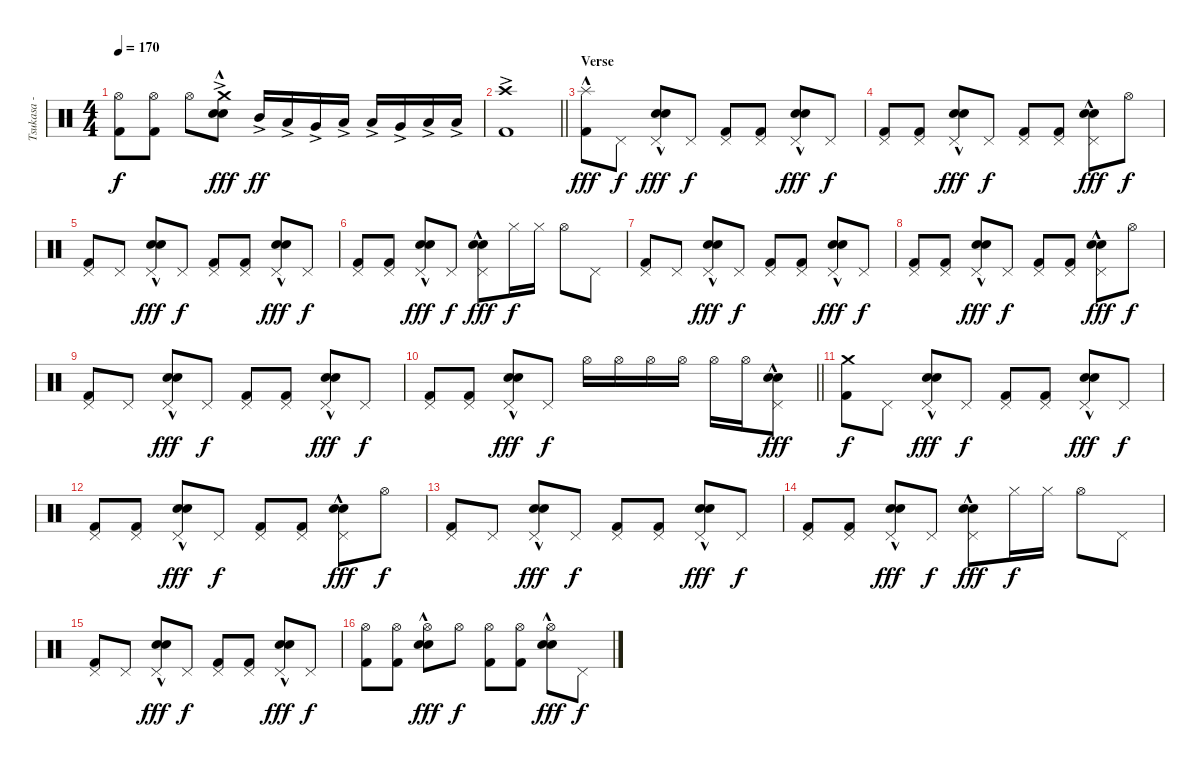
\track ("Tsukasa - Drums" "Tsukasa - ") {instrument percussion}
\staff {score}
\articulation defaults
\ts (4 4)
\tempo 170
\clef neutral
\ks c
("Hi-Hat (open)" "Kick (hit) 2").8{dy f} ("Hi-Hat (open)" "Kick (hit) 2").8 "Hi-Hat (open)".8 ("Crash medium (hit)"{ac} "Electric Snare (hit)"{hac} "Snare (hit) 2").8{dy fff} "Mid Tom (hit)"{ac}.16{dy ff} "Low Tom (hit)"{ac}.16 "Very Low Tom (hit)"{ac}.16 "Low Floor Tom (hit)"{ac}.16 "Low Tom (hit)"{ac}.16 "Very Low Tom (hit)"{ac}.16 "Low Floor Tom (hit)"{ac}.16 "Low Floor Tom (hit)"{ac}.16 |
\barLineRight lightlight
("Crash high (hit)"{ac} "Kick (hit) 2").1 |
\section ("" "Verse")
("Splash (hit)"{hac} "Kick (hit) 2").8{dy fff} "Pedal Hi-Hat (hit)".8{dy f} ("Pedal Hi-Hat (hit)" "Electric Snare (hit)"{hac} "Snare (hit) 2").8{dy fff} "Pedal Hi-Hat (hit)".8{dy f} ("Pedal Hi-Hat (hit)" "Kick (hit) 2").8 ("Pedal Hi-Hat (hit)" "Kick (hit) 2").8 ("Pedal Hi-Hat (hit)" "Electric Snare (hit)"{hac} "Snare (hit) 2").8{dy fff} "Pedal Hi-Hat (hit)".8{dy f} |
("Pedal Hi-Hat (hit)" "Kick (hit) 2").8 ("Pedal Hi-Hat (hit)" "Kick (hit) 2").8 ("Pedal Hi-Hat (hit)" "Electric Snare (hit)"{hac} "Snare (hit) 2").8{dy fff} "Pedal Hi-Hat (hit)".8{dy f} ("Pedal Hi-Hat (hit)" "Kick (hit) 2").8 ("Pedal Hi-Hat (hit)" "Kick (hit) 2").8 ("Pedal Hi-Hat (hit)" "Electric Snare (hit)"{hac} "Snare (hit) 2").8{dy fff} "Hi-Hat (open)".8{dy f} |
("Pedal Hi-Hat (hit)" "Kick (hit) 2").8 "Pedal Hi-Hat (hit)".8 ("Pedal Hi-Hat (hit)" "Electric Snare (hit)"{hac} "Snare (hit) 2").8{dy fff} "Pedal Hi-Hat (hit)".8{dy f} ("Pedal Hi-Hat (hit)" "Kick (hit) 2").8 ("Pedal Hi-Hat (hit)" "Kick (hit) 2").8 ("Pedal Hi-Hat (hit)" "Electric Snare (hit)"{hac} "Snare (hit) 2").8{dy fff} "Pedal Hi-Hat (hit)".8{dy f} |
("Pedal Hi-Hat (hit)" "Kick (hit) 2").8 ("Pedal Hi-Hat (hit)" "Kick (hit) 2").8 ("Pedal Hi-Hat (hit)" "Electric Snare (hit)"{hac} "Snare (hit) 2").8{dy fff} "Pedal Hi-Hat (hit)".8{dy f} ("Pedal Hi-Hat (hit)" "Electric Snare (hit)"{hac} "Snare (hit) 2").8{dy fff} "Hi-Hat (closed)".16{dy f} "Hi-Hat (closed)".16 "Hi-Hat (open)".8 "Pedal Hi-Hat (hit)".8 |
("Pedal Hi-Hat (hit)" "Kick (hit) 2").8 "Pedal Hi-Hat (hit)".8 ("Pedal Hi-Hat (hit)" "Electric Snare (hit)"{hac} "Snare (hit) 2").8{dy fff} "Pedal Hi-Hat (hit)".8{dy f} ("Pedal Hi-Hat (hit)" "Kick (hit) 2").8 ("Pedal Hi-Hat (hit)" "Kick (hit) 2").8 ("Pedal Hi-Hat (hit)" "Electric Snare (hit)"{hac} "Snare (hit) 2").8{dy fff} "Pedal Hi-Hat (hit)".8{dy f} |
("Pedal Hi-Hat (hit)" "Kick (hit) 2").8 ("Pedal Hi-Hat (hit)" "Kick (hit) 2").8 ("Pedal Hi-Hat (hit)" "Electric Snare (hit)"{hac} "Snare (hit) 2").8{dy fff} "Pedal Hi-Hat (hit)".8{dy f} ("Pedal Hi-Hat (hit)" "Kick (hit) 2").8 ("Pedal Hi-Hat (hit)" "Kick (hit) 2").8 ("Pedal Hi-Hat (hit)" "Electric Snare (hit)"{hac} "Snare (hit) 2").8{dy fff} "Hi-Hat (open)".8{dy f} |
("Pedal Hi-Hat (hit)" "Kick (hit) 2").8 "Pedal Hi-Hat (hit)".8 ("Pedal Hi-Hat (hit)" "Electric Snare (hit)"{hac} "Snare (hit) 2").8{dy fff} "Pedal Hi-Hat (hit)".8{dy f} ("Pedal Hi-Hat (hit)" "Kick (hit) 2").8 ("Pedal Hi-Hat (hit)" "Kick (hit) 2").8 ("Pedal Hi-Hat (hit)" "Electric Snare (hit)"{hac} "Snare (hit) 2").8{dy fff} "Pedal Hi-Hat (hit)".8{dy f} |
\barLineRight lightlight
("Pedal Hi-Hat (hit)" "Kick (hit) 2").8 ("Pedal Hi-Hat (hit)" "Kick (hit) 2").8 ("Pedal Hi-Hat (hit)" "Electric Snare (hit)"{hac} "Snare (hit) 2").8{dy fff} "Pedal Hi-Hat (hit)".8{dy f} "Hi-Hat (open)".16 "Hi-Hat (open)".16 "Hi-Hat (open)".16 "Hi-Hat (open)".16 "Hi-Hat (open)".16 "Hi-Hat (open)".16 ("Pedal Hi-Hat (hit)" "Electric Snare (hit)"{hac} "Snare (hit) 2").8{dy fff} |
\section ("" "")
("Crash medium (hit)" "Kick (hit) 2").8{dy f} "Pedal Hi-Hat (hit)".8 ("Pedal Hi-Hat (hit)" "Electric Snare (hit)"{hac} "Snare (hit) 2").8{dy fff} "Pedal Hi-Hat (hit)".8{dy f} ("Pedal Hi-Hat (hit)" "Kick (hit) 2").8 ("Pedal Hi-Hat (hit)" "Kick (hit) 2").8 ("Pedal Hi-Hat (hit)" "Electric Snare (hit)"{hac} "Snare (hit) 2").8{dy fff} "Pedal Hi-Hat (hit)".8{dy f} |
("Pedal Hi-Hat (hit)" "Kick (hit) 2").8 ("Pedal Hi-Hat (hit)" "Kick (hit) 2").8 ("Pedal Hi-Hat (hit)" "Electric Snare (hit)"{hac} "Snare (hit) 2").8{dy fff} "Pedal Hi-Hat (hit)".8{dy f} ("Pedal Hi-Hat (hit)" "Kick (hit) 2").8 ("Pedal Hi-Hat (hit)" "Kick (hit) 2").8 ("Pedal Hi-Hat (hit)" "Electric Snare (hit)"{hac} "Snare (hit) 2").8{dy fff} "Hi-Hat (open)".8{dy f} |
("Pedal Hi-Hat (hit)" "Kick (hit) 2").8 "Pedal Hi-Hat (hit)".8 ("Pedal Hi-Hat (hit)" "Electric Snare (hit)"{hac} "Snare (hit) 2").8{dy fff} "Pedal Hi-Hat (hit)".8{dy f} ("Pedal Hi-Hat (hit)" "Kick (hit) 2").8 ("Pedal Hi-Hat (hit)" "Kick (hit) 2").8 ("Pedal Hi-Hat (hit)" "Electric Snare (hit)"{hac} "Snare (hit) 2").8{dy fff} "Pedal Hi-Hat (hit)".8{dy f} |
("Pedal Hi-Hat (hit)" "Kick (hit) 2").8 ("Pedal Hi-Hat (hit)" "Kick (hit) 2").8 ("Pedal Hi-Hat (hit)" "Electric Snare (hit)"{hac} "Snare (hit) 2").8{dy fff} "Pedal Hi-Hat (hit)".8{dy f} ("Pedal Hi-Hat (hit)" "Electric Snare (hit)"{hac} "Snare (hit) 2").8{dy fff} "Hi-Hat (closed)".16{dy f} "Hi-Hat (closed)".16 "Hi-Hat (open)".8 "Pedal Hi-Hat (hit)".8 |
("Pedal Hi-Hat (hit)" "Kick (hit) 2").8 "Pedal Hi-Hat (hit)".8 ("Pedal Hi-Hat (hit)" "Electric Snare (hit)"{hac} "Snare (hit) 2").8{dy fff} "Pedal Hi-Hat (hit)".8{dy f} ("Pedal Hi-Hat (hit)" "Kick (hit) 2").8 ("Pedal Hi-Hat (hit)" "Kick (hit) 2").8 ("Pedal Hi-Hat (hit)" "Electric Snare (hit)"{hac} "Snare (hit) 2").8{dy fff} "Pedal Hi-Hat (hit)".8{dy f} |
("Hi-Hat (open)" "Kick (hit) 2").8 ("Hi-Hat (open)" "Kick (hit) 2").8 ("Hi-Hat (open)" "Electric Snare (hit)"{hac} "Snare (hit) 2").8{dy fff} "Hi-Hat (open)".8{dy f} ("Hi-Hat (open)" "Kick (hit) 2").8 ("Hi-Hat (open)" "Kick (hit) 2").8 ("Hi-Hat (open)" "Electric Snare (hit)"{hac} "Snare (hit) 2").8{dy fff} "Pedal Hi-Hat (hit)".8{dy f}
